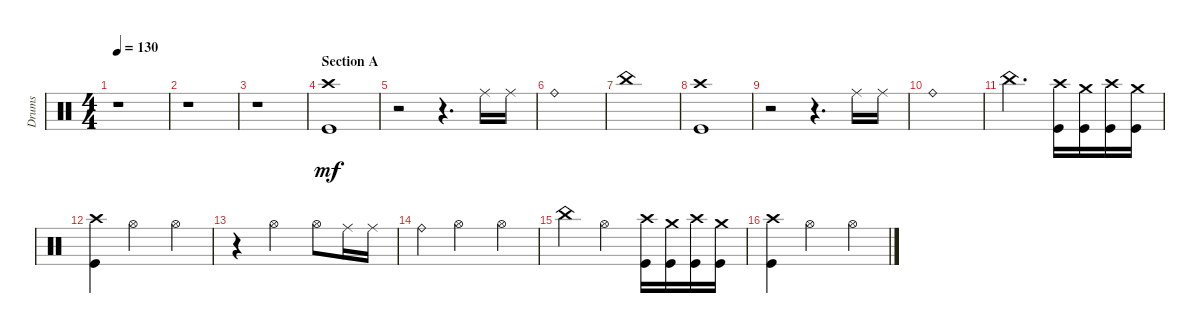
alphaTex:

\track ("Drums" "Drums") {instrument percussion}
\staff {score}
\articulation defaults
\ts (4 4)
\tempo 130
\clef neutral
\ks aminor
r.1{dy mf} |
r.1 |
r.1 |
\section ("" "Section A")
("Kick (hit)" "Crash high (hit)").1 |
r.2 r.4{d} "Ride (middle)".16 "Ride (middle)".16 |
"Ride (bell)".1 |
"China (hit)".1 |
("Kick (hit)" "Crash high (hit)").1 |
r.2 r.4{d} "Ride (middle)".16 "Ride (middle)".16 |
"Ride (bell)".1 |
"China (hit)".2{d} ("Kick (hit)" "Crash high (hit)").16 ("Kick (hit)" "Crash medium (hit)").16 ("Kick (hit)" "Crash high (hit)").16 ("Kick (hit)" "Crash medium (hit)").16 |
("Kick (hit)" "Crash high (hit)").4 "Hi-Hat (open)".2 "Hi-Hat (open)".4 |
r.4 "Hi-Hat (open)".2 "Hi-Hat (open)".8 "Ride (middle)".16 "Ride (middle)".16 |
"Ride (bell)".4 "Hi-Hat (open)".2 "Hi-Hat (open)".4 |
"China (hit)".4 "Hi-Hat (open)".2 ("Kick (hit)" "Crash high (hit)").16 ("Kick (hit)" "Crash medium (hit)").16 ("Kick (hit)" "Crash high (hit)").16 ("Kick (hit)" "Crash medium (hit)").16 |
("Kick (hit)" "Crash high (hit)").4 "Hi-Hat (open)".2 "Hi-Hat (open)".4
